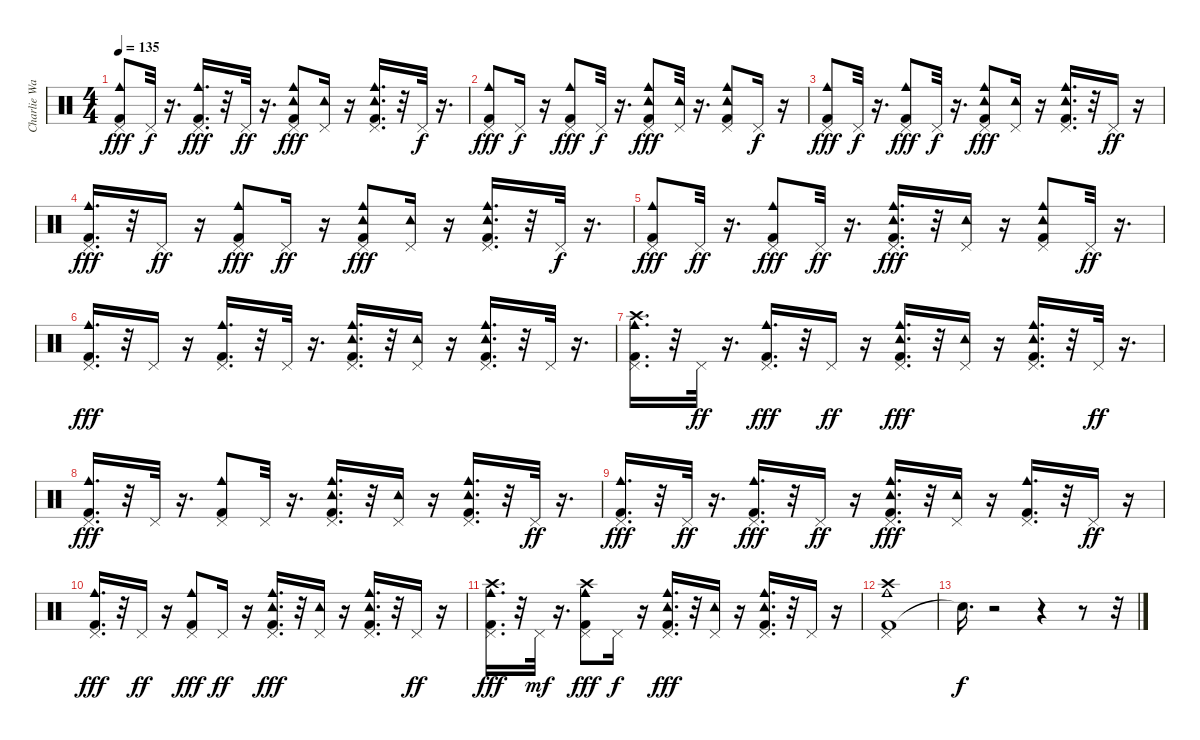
\track ("Charlie Watts - Drums" "Charlie Wa") {instrument percussion}
\staff {score}
\articulation defaults
\ts (4 4)
\tempo 135
\clef neutral
\ks c
("Kick (hit) 2" "Pedal Hi-Hat (hit)" "Cowbell medium (hit)").8{dy fff} "Pedal Hi-Hat (hit)".32{dy f} r.16{d} ("Kick (hit) 2" "Pedal Hi-Hat (hit)" "Cowbell medium (hit)").16{d dy fff} r.32 "Pedal Hi-Hat (hit)".32{dy ff} r.16{d} ("Kick (hit) 2" "Pedal Hi-Hat (hit)" "Tambourine (hit)" "Cowbell medium (hit)").8{dy fff} ("Pedal Hi-Hat (hit)" "Tambourine (hit)").16 r.16 ("Kick (hit) 2" "Pedal Hi-Hat (hit)" "Tambourine (hit)" "Cowbell medium (hit)").16{d} r.32 "Pedal Hi-Hat (hit)".32{dy f} r.16{d} |
("Kick (hit) 2" "Pedal Hi-Hat (hit)" "Cowbell medium (hit)").8{dy fff} "Pedal Hi-Hat (hit)".16{dy f} r.16 ("Kick (hit) 2" "Pedal Hi-Hat (hit)" "Cowbell medium (hit)").8{dy fff} "Pedal Hi-Hat (hit)".32{dy f} r.16{d} ("Kick (hit) 2" "Pedal Hi-Hat (hit)" "Tambourine (hit)" "Cowbell medium (hit)").8{dy fff} ("Pedal Hi-Hat (hit)" "Tambourine (hit)").32 r.16{d} ("Kick (hit) 2" "Pedal Hi-Hat (hit)" "Tambourine (hit)" "Cowbell medium (hit)").8 "Pedal Hi-Hat (hit)".16{dy f} r.16 |
("Kick (hit) 2" "Pedal Hi-Hat (hit)" "Cowbell medium (hit)").8{dy fff} "Pedal Hi-Hat (hit)".32{dy f} r.16{d} ("Kick (hit) 2" "Pedal Hi-Hat (hit)" "Cowbell medium (hit)").8{dy fff} "Pedal Hi-Hat (hit)".32{dy f} r.16{d} ("Kick (hit) 2" "Pedal Hi-Hat (hit)" "Tambourine (hit)" "Cowbell medium (hit)").8{dy fff} ("Pedal Hi-Hat (hit)" "Tambourine (hit)").16 r.16 ("Kick (hit) 2" "Pedal Hi-Hat (hit)" "Tambourine (hit)" "Cowbell medium (hit)").16{d} r.32 "Pedal Hi-Hat (hit)".16{dy ff} r.16 |
("Kick (hit) 2" "Pedal Hi-Hat (hit)" "Cowbell medium (hit)").16{d dy fff} r.32 "Pedal Hi-Hat (hit)".16{dy ff} r.16 ("Kick (hit) 2" "Pedal Hi-Hat (hit)" "Cowbell medium (hit)").8{dy fff} "Pedal Hi-Hat (hit)".16{dy ff} r.16 ("Kick (hit) 2" "Pedal Hi-Hat (hit)" "Tambourine (hit)" "Cowbell medium (hit)").8{dy fff} ("Pedal Hi-Hat (hit)" "Tambourine (hit)").16 r.16 ("Kick (hit) 2" "Pedal Hi-Hat (hit)" "Tambourine (hit)" "Cowbell medium (hit)").16{d} r.32 "Pedal Hi-Hat (hit)".32{dy f} r.16{d} |
("Kick (hit) 2" "Pedal Hi-Hat (hit)" "Cowbell medium (hit)").8{dy fff} "Pedal Hi-Hat (hit)".32{dy ff} r.16{d} ("Kick (hit) 2" "Pedal Hi-Hat (hit)" "Cowbell medium (hit)").8{dy fff} "Pedal Hi-Hat (hit)".32{dy ff} r.16{d} ("Kick (hit) 2" "Pedal Hi-Hat (hit)" "Tambourine (hit)" "Cowbell medium (hit)").16{d dy fff} r.32 ("Pedal Hi-Hat (hit)" "Tambourine (hit)").16 r.16 ("Kick (hit) 2" "Pedal Hi-Hat (hit)" "Tambourine (hit)" "Cowbell medium (hit)").8 "Pedal Hi-Hat (hit)".32{dy ff} r.16{d} |
("Kick (hit) 2" "Pedal Hi-Hat (hit)" "Cowbell medium (hit)").16{d dy fff} r.32 "Pedal Hi-Hat (hit)".16 r.16 ("Kick (hit) 2" "Pedal Hi-Hat (hit)" "Cowbell medium (hit)").16{d} r.32 "Pedal Hi-Hat (hit)".32 r.16{d} ("Kick (hit) 2" "Pedal Hi-Hat (hit)" "Tambourine (hit)" "Cowbell medium (hit)").16{d} r.32 ("Pedal Hi-Hat (hit)" "Tambourine (hit)").16 r.16 ("Kick (hit) 2" "Pedal Hi-Hat (hit)" "Tambourine (hit)" "Cowbell medium (hit)").16{d} r.32 "Pedal Hi-Hat (hit)".32 r.16{d} |
("Kick (hit) 2" "Pedal Hi-Hat (hit)" "Crash high (hit)" "Cowbell medium (hit)").16{d} r.32 "Pedal Hi-Hat (hit)".32{dy ff} r.16{d} ("Kick (hit) 2" "Pedal Hi-Hat (hit)" "Cowbell medium (hit)").16{d dy fff} r.32 "Pedal Hi-Hat (hit)".16{dy ff} r.16 ("Kick (hit) 2" "Pedal Hi-Hat (hit)" "Tambourine (hit)" "Cowbell medium (hit)").16{d dy fff} r.32 ("Pedal Hi-Hat (hit)" "Tambourine (hit)").16 r.16 ("Kick (hit) 2" "Pedal Hi-Hat (hit)" "Tambourine (hit)" "Cowbell medium (hit)").16{d} r.32 "Pedal Hi-Hat (hit)".32{dy ff} r.16{d} |
("Kick (hit) 2" "Pedal Hi-Hat (hit)" "Cowbell medium (hit)").16{d dy fff} r.32 "Pedal Hi-Hat (hit)".32 r.16{d} ("Kick (hit) 2" "Pedal Hi-Hat (hit)" "Cowbell medium (hit)").8 "Pedal Hi-Hat (hit)".32 r.16{d} ("Kick (hit) 2" "Pedal Hi-Hat (hit)" "Tambourine (hit)" "Cowbell medium (hit)").16{d} r.32 ("Pedal Hi-Hat (hit)" "Tambourine (hit)").16 r.16 ("Kick (hit) 2" "Pedal Hi-Hat (hit)" "Tambourine (hit)" "Cowbell medium (hit)").16{d} r.32 "Pedal Hi-Hat (hit)".32{dy ff} r.16{d} |
("Kick (hit) 2" "Pedal Hi-Hat (hit)" "Cowbell medium (hit)").16{d dy fff} r.32 "Pedal Hi-Hat (hit)".32{dy ff} r.16{d} ("Kick (hit) 2" "Pedal Hi-Hat (hit)" "Cowbell medium (hit)").16{d dy fff} r.32 "Pedal Hi-Hat (hit)".16{dy ff} r.16 ("Kick (hit) 2" "Pedal Hi-Hat (hit)" "Tambourine (hit)" "Cowbell medium (hit)").16{d dy fff} r.32 ("Pedal Hi-Hat (hit)" "Tambourine (hit)").16 r.16 ("Kick (hit) 2" "Pedal Hi-Hat (hit)" "Cowbell medium (hit)").16{d} r.32 "Pedal Hi-Hat (hit)".16{dy ff} r.16 |
("Kick (hit) 2" "Pedal Hi-Hat (hit)" "Cowbell medium (hit)").16{d dy fff} r.32 "Pedal Hi-Hat (hit)".16{dy ff} r.16 ("Kick (hit) 2" "Pedal Hi-Hat (hit)" "Cowbell medium (hit)").8{dy fff} "Pedal Hi-Hat (hit)".16{dy ff} r.16 ("Kick (hit) 2" "Pedal Hi-Hat (hit)" "Tambourine (hit)" "Cowbell medium (hit)").16{d dy fff} r.32 ("Pedal Hi-Hat (hit)" "Tambourine (hit)").16 r.16 ("Kick (hit) 2" "Pedal Hi-Hat (hit)" "Tambourine (hit)" "Cowbell medium (hit)").16{d} r.32 "Pedal Hi-Hat (hit)".16{dy ff} r.16 |
("Kick (hit) 2" "Pedal Hi-Hat (hit)" "Crash high (hit)" "Cowbell medium (hit)").16{d dy fff} r.32 "Pedal Hi-Hat (hit)".32{dy mf} r.16{d} ("Kick (hit) 2" "Pedal Hi-Hat (hit)" "Crash high (hit)" "Cowbell medium (hit)").8{dy fff} "Pedal Hi-Hat (hit)".16{dy f} r.16 ("Kick (hit) 2" "Pedal Hi-Hat (hit)" "Tambourine (hit)" "Cowbell medium (hit)").16{d dy fff} r.32 ("Pedal Hi-Hat (hit)" "Tambourine (hit)").16 r.16 ("Kick (hit) 2" "Pedal Hi-Hat (hit)" "Tambourine (hit)" "Cowbell medium (hit)").16{d} r.32 "Pedal Hi-Hat (hit)".16 r.16 |
("Kick (hit) 2" "Pedal Hi-Hat (hit)" "Crash high (hit)" "Cowbell medium (hit)").1 |
"Snare (hit)"{t}.16{d dy f} r.2 r.4 r.8 r.32
